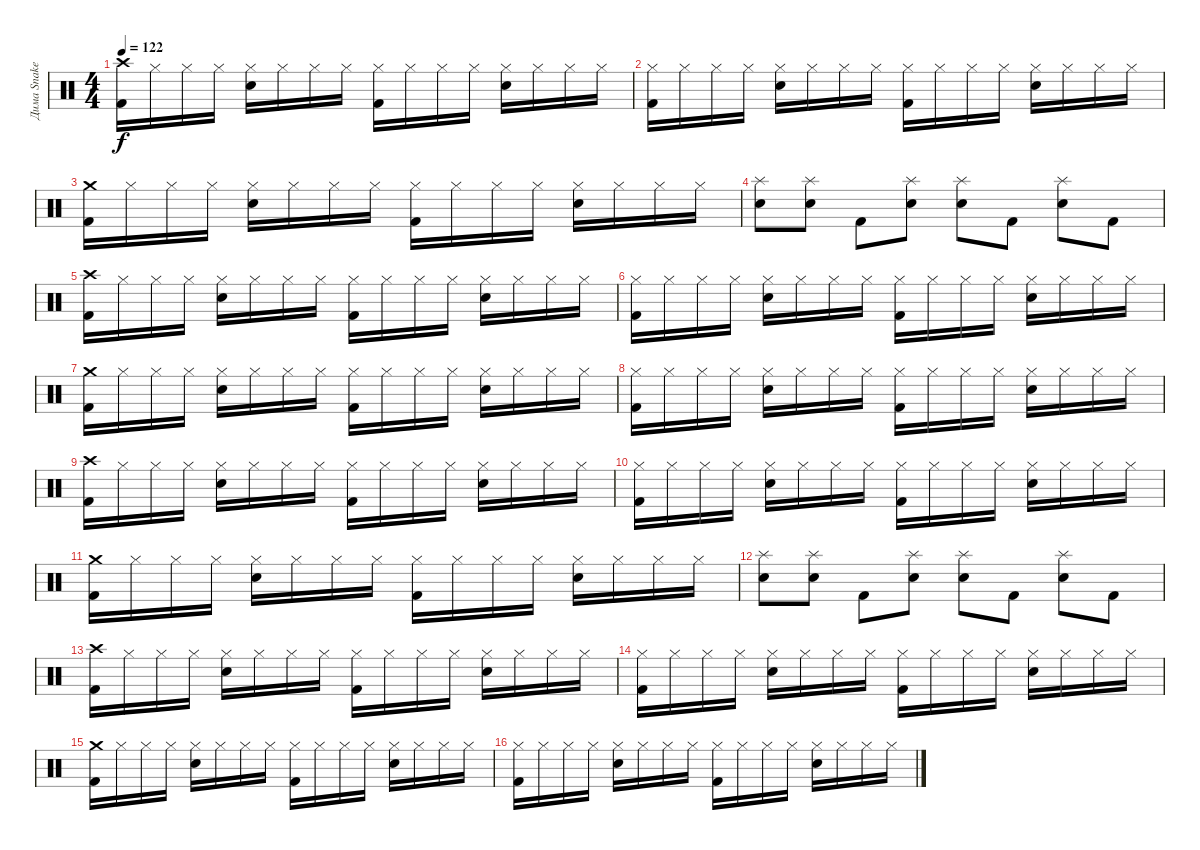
\track ("Дима Snake Хакимов" "Дима Snake") {instrument percussion}
\staff {score}
\articulation defaults
\ts (4 4)
\tempo 122
\clef neutral
\ks c
("Crash high (hit)" "Kick (hit) 2").16{dy f} "Hi-Hat (closed)".16 "Hi-Hat (closed)".16 "Hi-Hat (closed)".16 ("Hi-Hat (closed)" "Snare (hit) 2").16 "Hi-Hat (closed)".16 "Hi-Hat (closed)".16 "Hi-Hat (closed)".16 ("Hi-Hat (closed)" "Kick (hit) 2").16 "Hi-Hat (closed)".16 "Hi-Hat (closed)".16 "Hi-Hat (closed)".16 ("Hi-Hat (closed)" "Snare (hit) 2").16 "Hi-Hat (closed)".16 "Hi-Hat (closed)".16 "Hi-Hat (closed)".16 |
("Hi-Hat (closed)" "Kick (hit) 2").16 "Hi-Hat (closed)".16 "Hi-Hat (closed)".16 "Hi-Hat (closed)".16 ("Hi-Hat (closed)" "Snare (hit) 2").16 "Hi-Hat (closed)".16 "Hi-Hat (closed)".16 "Hi-Hat (closed)".16 ("Hi-Hat (closed)" "Kick (hit) 2").16 "Hi-Hat (closed)".16 "Hi-Hat (closed)".16 "Hi-Hat (closed)".16 ("Hi-Hat (closed)" "Snare (hit) 2").16 "Hi-Hat (closed)".16 "Hi-Hat (closed)".16 "Hi-Hat (closed)".16 |
("Crash medium (hit)" "Kick (hit) 2").16 "Hi-Hat (closed)".16 "Hi-Hat (closed)".16 "Hi-Hat (closed)".16 ("Hi-Hat (closed)" "Snare (hit) 2").16 "Hi-Hat (closed)".16 "Hi-Hat (closed)".16 "Hi-Hat (closed)".16 ("Hi-Hat (closed)" "Kick (hit) 2").16 "Hi-Hat (closed)".16 "Hi-Hat (closed)".16 "Hi-Hat (closed)".16 ("Hi-Hat (closed)" "Snare (hit) 2").16 "Hi-Hat (closed)".16 "Hi-Hat (closed)".16 "Hi-Hat (closed)".16 |
("Splash (hit)" "Snare (hit) 2").8 ("Splash (hit)" "Snare (hit) 2").8 "Kick (hit) 2".8 ("Splash (hit)" "Snare (hit) 2").8 ("Splash (hit)" "Snare (hit) 2").8 "Kick (hit) 2".8 ("Splash (hit)" "Snare (hit) 2").8 "Kick (hit) 2".8 |
("Crash high (hit)" "Kick (hit) 2").16 "Hi-Hat (closed)".16 "Hi-Hat (closed)".16 "Hi-Hat (closed)".16 ("Hi-Hat (closed)" "Snare (hit) 2").16 "Hi-Hat (closed)".16 "Hi-Hat (closed)".16 "Hi-Hat (closed)".16 ("Hi-Hat (closed)" "Kick (hit) 2").16 "Hi-Hat (closed)".16 "Hi-Hat (closed)".16 "Hi-Hat (closed)".16 ("Hi-Hat (closed)" "Snare (hit) 2").16 "Hi-Hat (closed)".16 "Hi-Hat (closed)".16 "Hi-Hat (closed)".16 |
("Hi-Hat (closed)" "Kick (hit) 2").16 "Hi-Hat (closed)".16 "Hi-Hat (closed)".16 "Hi-Hat (closed)".16 ("Hi-Hat (closed)" "Snare (hit) 2").16 "Hi-Hat (closed)".16 "Hi-Hat (closed)".16 "Hi-Hat (closed)".16 ("Hi-Hat (closed)" "Kick (hit) 2").16 "Hi-Hat (closed)".16 "Hi-Hat (closed)".16 "Hi-Hat (closed)".16 ("Hi-Hat (closed)" "Snare (hit) 2").16 "Hi-Hat (closed)".16 "Hi-Hat (closed)".16 "Hi-Hat (closed)".16 |
("Crash medium (hit)" "Kick (hit) 2").16 "Hi-Hat (closed)".16 "Hi-Hat (closed)".16 "Hi-Hat (closed)".16 ("Hi-Hat (closed)" "Snare (hit) 2").16 "Hi-Hat (closed)".16 "Hi-Hat (closed)".16 "Hi-Hat (closed)".16 ("Hi-Hat (closed)" "Kick (hit) 2").16 "Hi-Hat (closed)".16 "Hi-Hat (closed)".16 "Hi-Hat (closed)".16 ("Hi-Hat (closed)" "Snare (hit) 2").16 "Hi-Hat (closed)".16 "Hi-Hat (closed)".16 "Hi-Hat (closed)".16 |
("Hi-Hat (closed)" "Kick (hit) 2").16 "Hi-Hat (closed)".16 "Hi-Hat (closed)".16 "Hi-Hat (closed)".16 ("Hi-Hat (closed)" "Snare (hit) 2").16 "Hi-Hat (closed)".16 "Hi-Hat (closed)".16 "Hi-Hat (closed)".16 ("Hi-Hat (closed)" "Kick (hit) 2").16 "Hi-Hat (closed)".16 "Hi-Hat (closed)".16 "Hi-Hat (closed)".16 ("Hi-Hat (closed)" "Snare (hit) 2").16 "Hi-Hat (closed)".16 "Hi-Hat (closed)".16 "Hi-Hat (closed)".16 |
("Crash high (hit)" "Kick (hit) 2").16 "Hi-Hat (closed)".16 "Hi-Hat (closed)".16 "Hi-Hat (closed)".16 ("Hi-Hat (closed)" "Snare (hit) 2").16 "Hi-Hat (closed)".16 "Hi-Hat (closed)".16 "Hi-Hat (closed)".16 ("Hi-Hat (closed)" "Kick (hit) 2").16 "Hi-Hat (closed)".16 "Hi-Hat (closed)".16 "Hi-Hat (closed)".16 ("Hi-Hat (closed)" "Snare (hit) 2").16 "Hi-Hat (closed)".16 "Hi-Hat (closed)".16 "Hi-Hat (closed)".16 |
("Hi-Hat (closed)" "Kick (hit) 2").16 "Hi-Hat (closed)".16 "Hi-Hat (closed)".16 "Hi-Hat (closed)".16 ("Hi-Hat (closed)" "Snare (hit) 2").16 "Hi-Hat (closed)".16 "Hi-Hat (closed)".16 "Hi-Hat (closed)".16 ("Hi-Hat (closed)" "Kick (hit) 2").16 "Hi-Hat (closed)".16 "Hi-Hat (closed)".16 "Hi-Hat (closed)".16 ("Hi-Hat (closed)" "Snare (hit) 2").16 "Hi-Hat (closed)".16 "Hi-Hat (closed)".16 "Hi-Hat (closed)".16 |
("Crash medium (hit)" "Kick (hit) 2").16 "Hi-Hat (closed)".16 "Hi-Hat (closed)".16 "Hi-Hat (closed)".16 ("Hi-Hat (closed)" "Snare (hit) 2").16 "Hi-Hat (closed)".16 "Hi-Hat (closed)".16 "Hi-Hat (closed)".16 ("Hi-Hat (closed)" "Kick (hit) 2").16 "Hi-Hat (closed)".16 "Hi-Hat (closed)".16 "Hi-Hat (closed)".16 ("Hi-Hat (closed)" "Snare (hit) 2").16 "Hi-Hat (closed)".16 "Hi-Hat (closed)".16 "Hi-Hat (closed)".16 |
("Splash (hit)" "Snare (hit) 2").8 ("Splash (hit)" "Snare (hit) 2").8 "Kick (hit) 2".8 ("Splash (hit)" "Snare (hit) 2").8 ("Splash (hit)" "Snare (hit) 2").8 "Kick (hit) 2".8 ("Splash (hit)" "Snare (hit) 2").8 "Kick (hit) 2".8 |
("Crash high (hit)" "Kick (hit) 2").16 "Hi-Hat (closed)".16 "Hi-Hat (closed)".16 "Hi-Hat (closed)".16 ("Hi-Hat (closed)" "Snare (hit) 2").16 "Hi-Hat (closed)".16 "Hi-Hat (closed)".16 "Hi-Hat (closed)".16 ("Hi-Hat (closed)" "Kick (hit) 2").16 "Hi-Hat (closed)".16 "Hi-Hat (closed)".16 "Hi-Hat (closed)".16 ("Hi-Hat (closed)" "Snare (hit) 2").16 "Hi-Hat (closed)".16 "Hi-Hat (closed)".16 "Hi-Hat (closed)".16 |
("Hi-Hat (closed)" "Kick (hit) 2").16 "Hi-Hat (closed)".16 "Hi-Hat (closed)".16 "Hi-Hat (closed)".16 ("Hi-Hat (closed)" "Snare (hit) 2").16 "Hi-Hat (closed)".16 "Hi-Hat (closed)".16 "Hi-Hat (closed)".16 ("Hi-Hat (closed)" "Kick (hit) 2").16 "Hi-Hat (closed)".16 "Hi-Hat (closed)".16 "Hi-Hat (closed)".16 ("Hi-Hat (closed)" "Snare (hit) 2").16 "Hi-Hat (closed)".16 "Hi-Hat (closed)".16 "Hi-Hat (closed)".16 |
("Crash medium (hit)" "Kick (hit) 2").16 "Hi-Hat (closed)".16 "Hi-Hat (closed)".16 "Hi-Hat (closed)".16 ("Hi-Hat (closed)" "Snare (hit) 2").16 "Hi-Hat (closed)".16 "Hi-Hat (closed)".16 "Hi-Hat (closed)".16 ("Hi-Hat (closed)" "Kick (hit) 2").16 "Hi-Hat (closed)".16 "Hi-Hat (closed)".16 "Hi-Hat (closed)".16 ("Hi-Hat (closed)" "Snare (hit) 2").16 "Hi-Hat (closed)".16 "Hi-Hat (closed)".16 "Hi-Hat (closed)".16 |
("Hi-Hat (closed)" "Kick (hit) 2").16 "Hi-Hat (closed)".16 "Hi-Hat (closed)".16 "Hi-Hat (closed)".16 ("Hi-Hat (closed)" "Snare (hit) 2").16 "Hi-Hat (closed)".16 "Hi-Hat (closed)".16 "Hi-Hat (closed)".16 ("Hi-Hat (closed)" "Kick (hit) 2").16 "Hi-Hat (closed)".16 "Hi-Hat (closed)".16 "Hi-Hat (closed)".16 ("Hi-Hat (closed)" "Snare (hit) 2").16 "Hi-Hat (closed)".16 "Hi-Hat (closed)".16 "Hi-Hat (closed)".16
